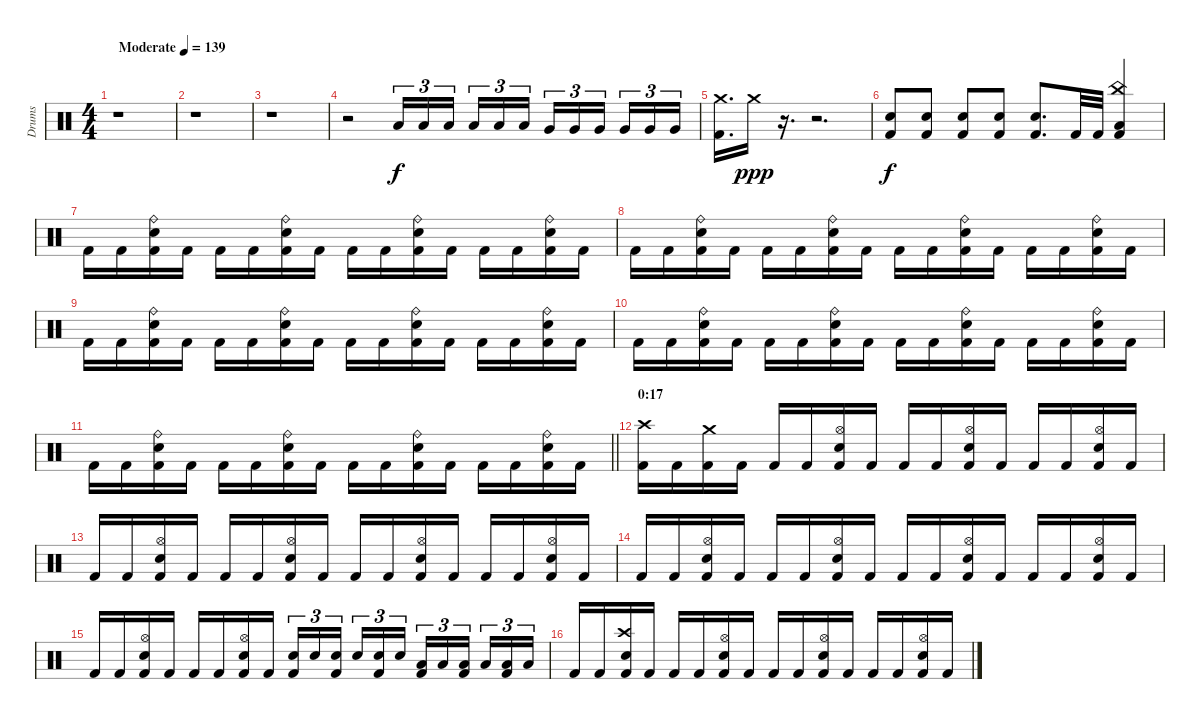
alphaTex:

\track ("Drums" "Drums") {instrument percussion}
\staff {score}
\articulation defaults
\ts (4 4)
\tempo (139 "Moderate")
\clef neutral
\ks c
r.1{dy f} |
r.1 |
r.1 |
r.2 "Low Tom (hit)".16{tu (3 2)} "Low Tom (hit)".16{tu (3 2)} "Low Tom (hit)".16{tu (3 2) beam splitsecondary} "Low Tom (hit)".16{tu (3 2)} "Low Tom (hit)".16{tu (3 2)} "Low Tom (hit)".16{tu (3 2)} "Very Low Tom (hit)".16{tu (3 2)} "Very Low Tom (hit)".16{tu (3 2)} "Very Low Tom (hit)".16{tu (3 2) beam splitsecondary} "Very Low Tom (hit)".16{tu (3 2)} "Very Low Tom (hit)".16{tu (3 2)} "Very Low Tom (hit)".16{tu (3 2)} |
("Crash medium (hit)" "Kick (hit) 2").16{d} "Crash medium (hit)".16{dy ppp} r.16{d} r.2{d} |
("Kick (hit) 2" "Electric Snare (hit)").8{dy f} ("Kick (hit) 2" "Electric Snare (hit)").8 ("Kick (hit) 2" "Electric Snare (hit)").8 ("Kick (hit) 2" "Electric Snare (hit)").8 ("Kick (hit) 2" "Electric Snare (hit)").8{d} "Kick (hit) 2".32 "Kick (hit) 2".32 ("China (hit)" "Low Floor Tom (hit)" "Kick (hit) 2").4 |
"Kick (hit) 2".16 "Kick (hit) 2".16 ("Ride (bell)" "Electric Snare (hit)" "Kick (hit) 2").16 "Kick (hit) 2".16 "Kick (hit) 2".16 "Kick (hit) 2".16 ("Ride (bell)" "Electric Snare (hit)" "Kick (hit) 2").16 "Kick (hit) 2".16 "Kick (hit) 2".16 "Kick (hit) 2".16 ("Ride (bell)" "Electric Snare (hit)" "Kick (hit) 2").16 "Kick (hit) 2".16 "Kick (hit) 2".16 "Kick (hit) 2".16 ("Ride (bell)" "Electric Snare (hit)" "Kick (hit) 2").16 "Kick (hit) 2".16 |
"Kick (hit) 2".16 "Kick (hit) 2".16 ("Ride (bell)" "Electric Snare (hit)" "Kick (hit) 2").16 "Kick (hit) 2".16 "Kick (hit) 2".16 "Kick (hit) 2".16 ("Ride (bell)" "Electric Snare (hit)" "Kick (hit) 2").16 "Kick (hit) 2".16 "Kick (hit) 2".16 "Kick (hit) 2".16 ("Ride (bell)" "Electric Snare (hit)" "Kick (hit) 2").16 "Kick (hit) 2".16 "Kick (hit) 2".16 "Kick (hit) 2".16 ("Ride (bell)" "Electric Snare (hit)" "Kick (hit) 2").16 "Kick (hit) 2".16 |
"Kick (hit) 2".16 "Kick (hit) 2".16 ("Ride (bell)" "Electric Snare (hit)" "Kick (hit) 2").16 "Kick (hit) 2".16 "Kick (hit) 2".16 "Kick (hit) 2".16 ("Ride (bell)" "Electric Snare (hit)" "Kick (hit) 2").16 "Kick (hit) 2".16 "Kick (hit) 2".16 "Kick (hit) 2".16 ("Ride (bell)" "Electric Snare (hit)" "Kick (hit) 2").16 "Kick (hit) 2".16 "Kick (hit) 2".16 "Kick (hit) 2".16 ("Ride (bell)" "Electric Snare (hit)" "Kick (hit) 2").16 "Kick (hit) 2".16 |
"Kick (hit) 2".16 "Kick (hit) 2".16 ("Ride (bell)" "Electric Snare (hit)" "Kick (hit) 2").16 "Kick (hit) 2".16 "Kick (hit) 2".16 "Kick (hit) 2".16 ("Ride (bell)" "Electric Snare (hit)" "Kick (hit) 2").16 "Kick (hit) 2".16 "Kick (hit) 2".16 "Kick (hit) 2".16 ("Ride (bell)" "Electric Snare (hit)" "Kick (hit) 2").16 "Kick (hit) 2".16 "Kick (hit) 2".16 "Kick (hit) 2".16 ("Ride (bell)" "Electric Snare (hit)" "Kick (hit) 2").16 "Kick (hit) 2".16 |
\barLineRight lightlight "Kick (hit) 2".16 "Kick (hit) 2".16
("Ride (bell)" "Electric Snare (hit)" "Kick (hit) 2").16 "Kick (hit) 2".16 "Kick (hit) 2".16 "Kick (hit) 2".16 ("Ride (bell)" "Electric Snare (hit)" "Kick (hit) 2").16 "Kick (hit) 2".16 "Kick (hit) 2".16 "Kick (hit) 2".16 ("Ride (bell)" "Electric Snare (hit)" "Kick (hit) 2").16 "Kick (hit) 2".16 "Kick (hit) 2".16 "Kick (hit) 2".16 ("Ride (bell)" "Electric Snare (hit)" "Kick (hit) 2").16 "Kick (hit) 2".16 |
\section ("" "0:17")
("Crash high (hit)" "Kick (hit) 2").16 "Kick (hit) 2".16 ("Crash medium (hit)" "Kick (hit) 2").16 "Kick (hit) 2".16 "Kick (hit) 2".16 "Kick (hit) 2".16 ("Hi-Hat (open)" "Snare (hit) 2" "Kick (hit) 2").16 "Kick (hit) 2".16 "Kick (hit) 2".16 "Kick (hit) 2".16 ("Hi-Hat (open)" "Snare (hit) 2" "Kick (hit) 2").16 "Kick (hit) 2".16 "Kick (hit) 2".16 "Kick (hit) 2".16 ("Hi-Hat (open)" "Snare (hit) 2" "Kick (hit) 2").16 "Kick (hit) 2".16 |
"Kick (hit) 2".16 "Kick (hit) 2".16 ("Hi-Hat (open)" "Snare (hit) 2" "Kick (hit) 2").16 "Kick (hit) 2".16 "Kick (hit) 2".16 "Kick (hit) 2".16 ("Hi-Hat (open)" "Snare (hit) 2" "Kick (hit) 2").16 "Kick (hit) 2".16 "Kick (hit) 2".16 "Kick (hit) 2".16 ("Hi-Hat (open)" "Snare (hit) 2" "Kick (hit) 2").16 "Kick (hit) 2".16 "Kick (hit) 2".16 "Kick (hit) 2".16 ("Hi-Hat (open)" "Snare (hit) 2" "Kick (hit) 2").16 "Kick (hit) 2".16 |
"Kick (hit) 2".16 "Kick (hit) 2".16 ("Hi-Hat (open)" "Snare (hit) 2" "Kick (hit) 2").16 "Kick (hit) 2".16 "Kick (hit) 2".16 "Kick (hit) 2".16 ("Hi-Hat (open)" "Snare (hit) 2" "Kick (hit) 2").16 "Kick (hit) 2".16 "Kick (hit) 2".16 "Kick (hit) 2".16 ("Hi-Hat (open)" "Snare (hit) 2" "Kick (hit) 2").16 "Kick (hit) 2".16 "Kick (hit) 2".16 "Kick (hit) 2".16 ("Hi-Hat (open)" "Snare (hit) 2" "Kick (hit) 2").16 "Kick (hit) 2".16 |
"Kick (hit) 2".16 "Kick (hit) 2".16 ("Hi-Hat (open)" "Snare (hit) 2" "Kick (hit) 2").16 "Kick (hit) 2".16 "Kick (hit) 2".16 "Kick (hit) 2".16 ("Hi-Hat (open)" "Snare (hit) 2" "Kick (hit) 2").16 "Kick (hit) 2".16 ("Electric Snare (hit)" "Kick (hit) 2").16{tu (3 2)} "Electric Snare (hit)".16{tu (3 2)} ("Electric Snare (hit)" "Kick (hit) 2").16{tu (3 2) beam splitsecondary} "Electric Snare (hit)".16{tu (3 2)} ("Electric Snare (hit)" "Kick (hit) 2").16{tu (3 2)} "Electric Snare (hit)".16{tu (3 2)} ("Low Floor Tom (hit)" "Kick (hit) 2").16{tu (3 2)} "Low Floor Tom (hit)".16{tu (3 2)} ("Low Floor Tom (hit)" "Kick (hit) 2").16{tu (3 2) beam splitsecondary} "Low Floor Tom (hit)".16{tu (3 2)} ("Low Floor Tom (hit)" "Kick (hit) 2").16{tu (3 2)} "Low Floor Tom (hit)".16{tu (3 2)} |
"Kick (hit) 2".16 "Kick (hit) 2".16 ("Crash high (hit)" "Snare (hit) 2" "Kick (hit) 2").16 "Kick (hit) 2".16 "Kick (hit) 2".16 "Kick (hit) 2".16 ("Hi-Hat (open)" "Snare (hit) 2" "Kick (hit) 2").16 "Kick (hit) 2".16 "Kick (hit) 2".16 "Kick (hit) 2".16 ("Hi-Hat (open)" "Snare (hit) 2" "Kick (hit) 2").16 "Kick (hit) 2".16 "Kick (hit) 2".16 "Kick (hit) 2".16 ("Hi-Hat (open)" "Snare (hit) 2" "Kick (hit) 2").16 "Kick (hit) 2".16
